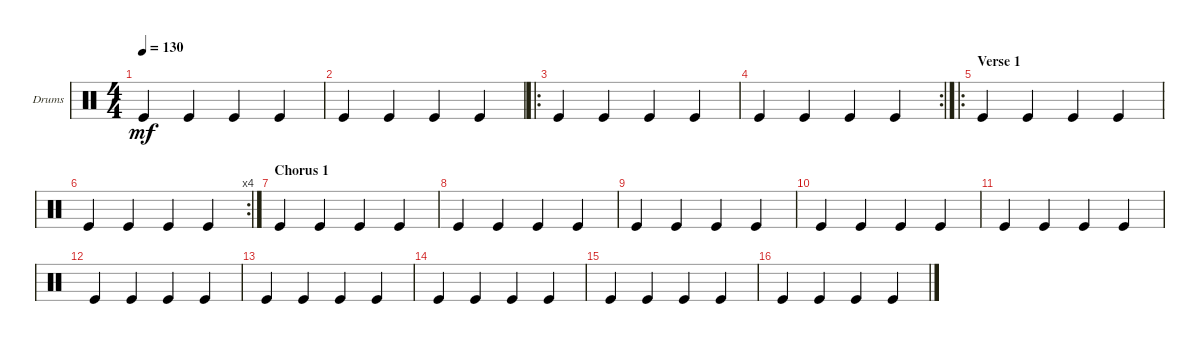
\bracketExtendMode groupsimilarinstruments
\firstSystemTrackNameOrientation horizontal
\otherSystemsTrackNameOrientation horizontal
\chordDiagramsInScore
\track ("Drumkit" "Drums") {instrument percussion}
\staff {score}
\articulation defaults
\ts (4 4)
\tempo 130
\clef neutral
\ks c "Kick (hit)".4{dy mf} "Kick (hit)".4 "Kick (hit)".4 "Kick (hit)".4
|
"Kick (hit)".4 "Kick (hit)".4 "Kick (hit)".4 "Kick (hit)".4 |
\ro "Kick (hit)".4 "Kick (hit)".4 "Kick (hit)".4 "Kick (hit)".4
|
\rc 2 "Kick (hit)".4 "Kick (hit)".4 "Kick (hit)".4 "Kick (hit)".4
|
\ro
\section ("" "Verse 1")
"Kick (hit)".4 "Kick (hit)".4 "Kick (hit)".4 "Kick (hit)".4 |
\rc 4 "Kick (hit)".4 "Kick (hit)".4 "Kick (hit)".4 "Kick (hit)".4
|
\section ("" "Chorus 1")
"Kick (hit)".4 "Kick (hit)".4 "Kick (hit)".4 "Kick (hit)".4 |
"Kick (hit)".4 "Kick (hit)".4 "Kick (hit)".4 "Kick (hit)".4 |
"Kick (hit)".4 "Kick (hit)".4 "Kick (hit)".4 "Kick (hit)".4 |
"Kick (hit)".4 "Kick (hit)".4 "Kick (hit)".4 "Kick (hit)".4 |
"Kick (hit)".4 "Kick (hit)".4 "Kick (hit)".4 "Kick (hit)".4 |
"Kick (hit)".4 "Kick (hit)".4 "Kick (hit)".4 "Kick (hit)".4 |
"Kick (hit)".4 "Kick (hit)".4 "Kick (hit)".4 "Kick (hit)".4 |
"Kick (hit)".4 "Kick (hit)".4 "Kick (hit)".4 "Kick (hit)".4 |
"Kick (hit)".4 "Kick (hit)".4 "Kick (hit)".4 "Kick (hit)".4 |
"Kick (hit)".4 "Kick (hit)".4 "Kick (hit)".4 "Kick (hit)".4
